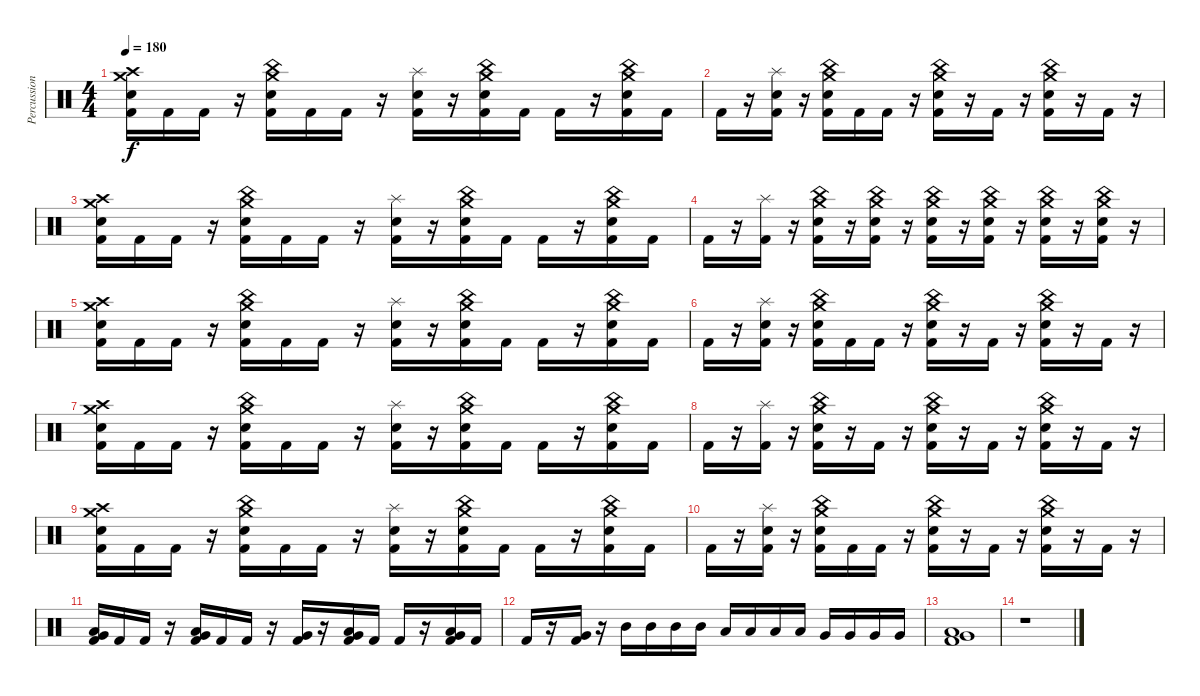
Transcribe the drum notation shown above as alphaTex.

\track ("Percussion" "Percussion") {instrument percussion}
\staff {score}
\articulation defaults
\ts (4 4)
\tempo 180
\clef neutral
\ks c
("Crash medium (hit)" "Crash high (hit)" "Electric Snare (hit)" "Kick (hit) 2").16{dy f} "Kick (hit) 2".16 "Kick (hit) 2".16 r.16 ("China (hit)" "Crash medium (hit)" "Electric Snare (hit)" "Kick (hit) 2").16 "Kick (hit) 2".16 "Kick (hit) 2".16 r.16 ("Splash (hit)" "Electric Snare (hit)" "Kick (hit) 2").16 r.16 ("China (hit)" "Crash medium (hit)" "Electric Snare (hit)" "Kick (hit) 2").16 "Kick (hit) 2".16 "Kick (hit) 2".16 r.16 ("China (hit)" "Crash medium (hit)" "Electric Snare (hit)" "Kick (hit) 2").16 "Kick (hit) 2".16 |
"Kick (hit) 2".16 r.16 ("Splash (hit)" "Electric Snare (hit)" "Kick (hit) 2").16 r.16 ("China (hit)" "Crash medium (hit)" "Electric Snare (hit)" "Kick (hit) 2").16 "Kick (hit) 2".16 "Kick (hit) 2".16 r.16 ("China (hit)" "Crash medium (hit)" "Electric Snare (hit)" "Kick (hit) 2").16 r.16 "Kick (hit) 2".16 r.16 ("China (hit)" "Crash medium (hit)" "Electric Snare (hit)" "Kick (hit) 2").16 r.16 "Kick (hit) 2".16 r.16 |
("Crash medium (hit)" "Crash high (hit)" "Electric Snare (hit)" "Kick (hit) 2").16 "Kick (hit) 2".16 "Kick (hit) 2".16 r.16 ("China (hit)" "Crash medium (hit)" "Electric Snare (hit)" "Kick (hit) 2").16 "Kick (hit) 2".16 "Kick (hit) 2".16 r.16 ("Splash (hit)" "Electric Snare (hit)" "Kick (hit) 2").16 r.16 ("China (hit)" "Crash medium (hit)" "Electric Snare (hit)" "Kick (hit) 2").16 "Kick (hit) 2".16 "Kick (hit) 2".16 r.16 ("China (hit)" "Crash medium (hit)" "Electric Snare (hit)" "Kick (hit) 2").16 "Kick (hit) 2".16 |
"Kick (hit) 2".16 r.16 ("Splash (hit)" "Kick (hit) 2").16 r.16 ("China (hit)" "Crash medium (hit)" "Electric Snare (hit)" "Kick (hit) 2").16 r.16 ("China (hit)" "Crash medium (hit)" "Electric Snare (hit)" "Kick (hit) 2").16 r.16 ("China (hit)" "Crash medium (hit)" "Electric Snare (hit)" "Kick (hit) 2").16 r.16 ("China (hit)" "Crash medium (hit)" "Electric Snare (hit)" "Kick (hit) 2").16 r.16 ("China (hit)" "Crash medium (hit)" "Electric Snare (hit)" "Kick (hit) 2").16 r.16 ("China (hit)" "Crash medium (hit)" "Electric Snare (hit)" "Kick (hit) 2").16 r.16 |
("Crash medium (hit)" "Crash high (hit)" "Electric Snare (hit)" "Kick (hit) 2").16 "Kick (hit) 2".16 "Kick (hit) 2".16 r.16 ("China (hit)" "Crash medium (hit)" "Electric Snare (hit)" "Kick (hit) 2").16 "Kick (hit) 2".16 "Kick (hit) 2".16 r.16 ("Splash (hit)" "Electric Snare (hit)" "Kick (hit) 2").16 r.16 ("China (hit)" "Crash medium (hit)" "Electric Snare (hit)" "Kick (hit) 2").16 "Kick (hit) 2".16 "Kick (hit) 2".16 r.16 ("China (hit)" "Crash medium (hit)" "Electric Snare (hit)" "Kick (hit) 2").16 "Kick (hit) 2".16 |
"Kick (hit) 2".16 r.16 ("Splash (hit)" "Electric Snare (hit)" "Kick (hit) 2").16 r.16 ("China (hit)" "Crash medium (hit)" "Electric Snare (hit)" "Kick (hit) 2").16 "Kick (hit) 2".16 "Kick (hit) 2".16 r.16 ("China (hit)" "Crash medium (hit)" "Electric Snare (hit)" "Kick (hit) 2").16 r.16 "Kick (hit) 2".16 r.16 ("China (hit)" "Crash medium (hit)" "Electric Snare (hit)" "Kick (hit) 2").16 r.16 "Kick (hit) 2".16 r.16 |
("Crash medium (hit)" "Crash high (hit)" "Electric Snare (hit)" "Kick (hit) 2").16 "Kick (hit) 2".16 "Kick (hit) 2".16 r.16 ("China (hit)" "Crash medium (hit)" "Electric Snare (hit)" "Kick (hit) 2").16 "Kick (hit) 2".16 "Kick (hit) 2".16 r.16 ("Splash (hit)" "Electric Snare (hit)" "Kick (hit) 2").16 r.16 ("China (hit)" "Crash medium (hit)" "Electric Snare (hit)" "Kick (hit) 2").16 "Kick (hit) 2".16 "Kick (hit) 2".16 r.16 ("China (hit)" "Crash medium (hit)" "Electric Snare (hit)" "Kick (hit) 2").16 "Kick (hit) 2".16 |
"Kick (hit) 2".16 r.16 ("Splash (hit)" "Kick (hit) 2").16 r.16 ("China (hit)" "Crash medium (hit)" "Electric Snare (hit)" "Kick (hit) 2").16 r.16 "Kick (hit) 2".16 r.16 ("China (hit)" "Crash medium (hit)" "Electric Snare (hit)" "Kick (hit) 2").16 r.16 "Kick (hit) 2".16 r.16 ("China (hit)" "Crash medium (hit)" "Electric Snare (hit)" "Kick (hit) 2").16 r.16 "Kick (hit) 2".16 r.16 |
("Crash medium (hit)" "Crash high (hit)" "Electric Snare (hit)" "Kick (hit) 2").16 "Kick (hit) 2".16 "Kick (hit) 2".16 r.16 ("China (hit)" "Crash medium (hit)" "Electric Snare (hit)" "Kick (hit) 2").16 "Kick (hit) 2".16 "Kick (hit) 2".16 r.16 ("Splash (hit)" "Electric Snare (hit)" "Kick (hit) 2").16 r.16 ("China (hit)" "Crash medium (hit)" "Electric Snare (hit)" "Kick (hit) 2").16 "Kick (hit) 2".16 "Kick (hit) 2".16 r.16 ("China (hit)" "Crash medium (hit)" "Electric Snare (hit)" "Kick (hit) 2").16 "Kick (hit) 2".16 |
"Kick (hit) 2".16 r.16 ("Splash (hit)" "Electric Snare (hit)" "Kick (hit) 2").16 r.16 ("China (hit)" "Crash medium (hit)" "Electric Snare (hit)" "Kick (hit) 2").16 "Kick (hit) 2".16 "Kick (hit) 2".16 r.16 ("China (hit)" "Crash medium (hit)" "Electric Snare (hit)" "Kick (hit) 2").16 r.16 "Kick (hit) 2".16 r.16 ("China (hit)" "Crash medium (hit)" "Electric Snare (hit)" "Kick (hit) 2").16 r.16 "Kick (hit) 2".16 r.16 |
("Very Low Tom (hit)" "Low Floor Tom (hit)" "Kick (hit) 2").16 "Kick (hit) 2".16 "Kick (hit) 2".16 r.16 ("Very Low Tom (hit)" "Low Floor Tom (hit)" "Kick (hit) 2").16 "Kick (hit) 2".16 "Kick (hit) 2".16 r.16 ("Very Low Tom (hit)" "Kick (hit) 2").16 r.16 ("Very Low Tom (hit)" "Low Floor Tom (hit)" "Kick (hit) 2").16 "Kick (hit) 2".16 "Kick (hit) 2".16 r.16 ("Very Low Tom (hit)" "Low Floor Tom (hit)" "Kick (hit) 2").16 "Kick (hit) 2".16 |
"Kick (hit) 2".16 r.16 ("Very Low Tom (hit)" "Kick (hit) 2").16 r.16 "Mid Tom (hit)".16 "Mid Tom (hit)".16 "Mid Tom (hit)".16 "Mid Tom (hit)".16 "Low Tom (hit)".16 "Low Tom (hit)".16 "Low Tom (hit)".16 "Low Tom (hit)".16 "Very Low Tom (hit)".16 "Very Low Tom (hit)".16 "Very Low Tom (hit)".16 "Very Low Tom (hit)".16 |
("Very Low Tom (hit)" "Low Floor Tom (hit)" "Kick (hit) 2").1 |
r.1
